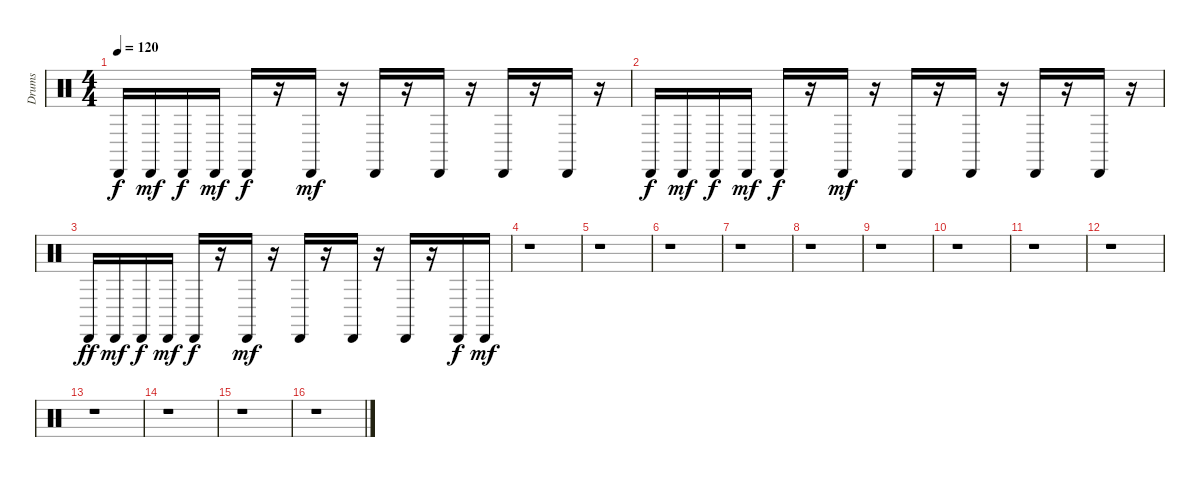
\track ("Drums" "Drums") {instrument percussion}
\staff {score}
\articulation defaults
\ts (4 4)
\tempo 120
\clef neutral
\ks c "Cabasa (hit)".16{dy f} "Cabasa (hit)".16{dy mf} "Cabasa (hit)".16{dy f} "Cabasa (hit)".16{dy mf} "Cabasa (hit)".16{dy f}
r.16 "Cabasa (hit)".16{dy mf} r.16 "Cabasa (hit)".16 r.16 "Cabasa (hit)".16 r.16 "Cabasa (hit)".16 r.16 "Cabasa (hit)".16 r.16 |
"Cabasa (hit)".16{dy f} "Cabasa (hit)".16{dy mf} "Cabasa (hit)".16{dy f} "Cabasa (hit)".16{dy mf} "Cabasa (hit)".16{dy f} r.16 "Cabasa (hit)".16{dy mf} r.16 "Cabasa (hit)".16 r.16 "Cabasa (hit)".16 r.16 "Cabasa (hit)".16 r.16 "Cabasa (hit)".16 r.16 |
"Cabasa (hit)".16{dy ff} "Cabasa (hit)".16{dy mf} "Cabasa (hit)".16{dy f} "Cabasa (hit)".16{dy mf} "Cabasa (hit)".16{dy f} r.16 "Cabasa (hit)".16{dy mf} r.16 "Cabasa (hit)".16 r.16 "Cabasa (hit)".16 r.16 "Cabasa (hit)".16 r.16 "Cabasa (hit)".16{dy f} "Cabasa (hit)".16{dy mf} |
r.1 |
r.1 |
r.1 |
r.1 |
r.1 |
r.1 |
r.1 |
r.1 |
r.1 |
r.1 |
r.1 |
r.1 |
r.1
